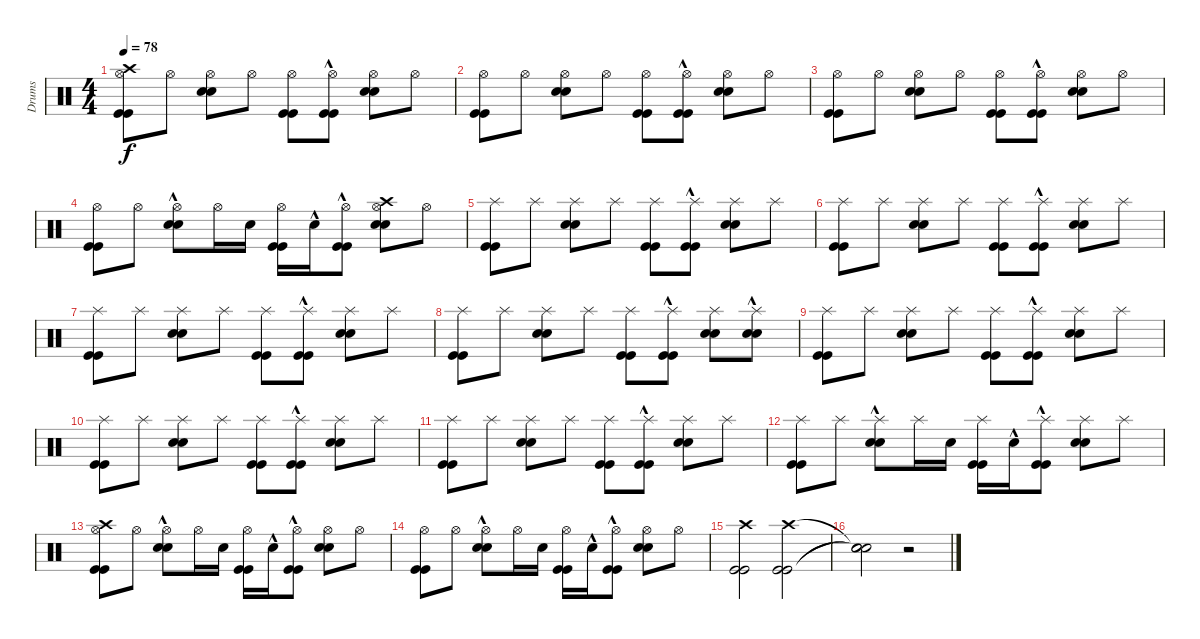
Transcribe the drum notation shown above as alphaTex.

\track ("Drums" "Drums") {instrument percussion}
\staff {score}
\articulation defaults
\ts (4 4)
\tempo 78
\clef neutral
\ks c
("Kick (hit)" "Kick (hit)" "Hi-Hat (open)" "Crash high (hit)").8{dy f} "Hi-Hat (open)".8 ("Snare (hit) 2" "Snare (hit) 2" "Hi-Hat (open)").8 "Hi-Hat (open)".8 ("Kick (hit)" "Kick (hit)" "Hi-Hat (open)").8 ("Kick (hit)"{hac} "Kick (hit)"{hac} "Hi-Hat (open)").8 ("Snare (hit) 2" "Snare (hit) 2" "Hi-Hat (open)").8 "Hi-Hat (open)".8 |
("Kick (hit)" "Kick (hit)" "Hi-Hat (open)").8 "Hi-Hat (open)".8 ("Snare (hit) 2" "Snare (hit) 2" "Hi-Hat (open)").8 "Hi-Hat (open)".8 ("Kick (hit)" "Kick (hit)" "Hi-Hat (open)").8 ("Kick (hit)"{hac} "Kick (hit)"{hac} "Hi-Hat (open)").8 ("Snare (hit) 2" "Snare (hit) 2" "Hi-Hat (open)").8 "Hi-Hat (open)".8 |
("Kick (hit)" "Kick (hit)" "Hi-Hat (open)").8 "Hi-Hat (open)".8 ("Snare (hit) 2" "Snare (hit) 2" "Hi-Hat (open)").8 "Hi-Hat (open)".8 ("Kick (hit)" "Kick (hit)" "Hi-Hat (open)").8 ("Kick (hit)"{hac} "Kick (hit)"{hac} "Hi-Hat (open)").8 ("Snare (hit) 2" "Snare (hit) 2" "Hi-Hat (open)").8 "Hi-Hat (open)".8 |
("Kick (hit)" "Kick (hit)" "Hi-Hat (open)").8 "Hi-Hat (open)".8 ("Snare (hit) 2"{hac} "Snare (hit) 2"{hac} "Hi-Hat (open)").8 "Hi-Hat (open)".16 "Snare (hit) 2".16 ("Kick (hit)" "Kick (hit)" "Hi-Hat (open)").16 "Snare (hit) 2"{hac}.16 ("Kick (hit)"{hac} "Kick (hit)"{hac} "Hi-Hat (open)").8 ("Snare (hit) 2" "Snare (hit) 2" "Hi-Hat (open)" "Crash high (hit)").8 "Hi-Hat (open)".8 |
("Kick (hit)" "Kick (hit)" "Splash (hit)").8 "Splash (hit)".8 ("Snare (hit) 2" "Snare (hit) 2" "Splash (hit)").8 "Splash (hit)".8 ("Kick (hit)" "Kick (hit)" "Splash (hit)").8 ("Kick (hit)"{hac} "Kick (hit)"{hac} "Splash (hit)").8 ("Snare (hit) 2" "Snare (hit) 2" "Splash (hit)").8 "Splash (hit)".8 |
("Kick (hit)" "Kick (hit)" "Splash (hit)").8 "Splash (hit)".8 ("Snare (hit) 2" "Snare (hit) 2" "Splash (hit)").8 "Splash (hit)".8 ("Kick (hit)" "Kick (hit)" "Splash (hit)").8 ("Kick (hit)"{hac} "Kick (hit)"{hac} "Splash (hit)").8 ("Snare (hit) 2" "Snare (hit) 2" "Splash (hit)").8 "Splash (hit)".8 |
("Kick (hit)" "Kick (hit)" "Splash (hit)").8 "Splash (hit)".8 ("Snare (hit) 2" "Snare (hit) 2" "Splash (hit)").8 "Splash (hit)".8 ("Kick (hit)" "Kick (hit)" "Splash (hit)").8 ("Kick (hit)"{hac} "Kick (hit)"{hac} "Splash (hit)").8 ("Snare (hit) 2" "Snare (hit) 2" "Splash (hit)").8 "Splash (hit)".8 |
("Kick (hit)" "Kick (hit)" "Splash (hit)").8 "Splash (hit)".8 ("Snare (hit) 2" "Snare (hit) 2" "Splash (hit)").8 "Splash (hit)".8 ("Kick (hit)" "Kick (hit)" "Splash (hit)").8 ("Kick (hit)"{hac} "Kick (hit)"{hac} "Splash (hit)").8 ("Snare (hit) 2" "Snare (hit) 2" "Splash (hit)").8 ("Snare (hit) 2"{hac} "Snare (hit) 2"{hac} "Splash (hit)").8 |
("Kick (hit)" "Kick (hit)" "Splash (hit)").8 "Splash (hit)".8 ("Snare (hit) 2" "Snare (hit) 2" "Splash (hit)").8 "Splash (hit)".8 ("Kick (hit)" "Kick (hit)" "Splash (hit)").8 ("Kick (hit)"{hac} "Kick (hit)"{hac} "Splash (hit)").8 ("Snare (hit) 2" "Snare (hit) 2" "Splash (hit)").8 "Splash (hit)".8 |
("Kick (hit)" "Kick (hit)" "Splash (hit)").8 "Splash (hit)".8 ("Snare (hit) 2" "Snare (hit) 2" "Splash (hit)").8 "Splash (hit)".8 ("Kick (hit)" "Kick (hit)" "Splash (hit)").8 ("Kick (hit)"{hac} "Kick (hit)"{hac} "Splash (hit)").8 ("Snare (hit) 2" "Snare (hit) 2" "Splash (hit)").8 "Splash (hit)".8 |
("Kick (hit)" "Kick (hit)" "Splash (hit)").8 "Splash (hit)".8 ("Snare (hit) 2" "Snare (hit) 2" "Splash (hit)").8 "Splash (hit)".8 ("Kick (hit)" "Kick (hit)" "Splash (hit)").8 ("Kick (hit)"{hac} "Kick (hit)"{hac} "Splash (hit)").8 ("Snare (hit) 2" "Snare (hit) 2" "Splash (hit)").8 "Splash (hit)".8 |
("Kick (hit)" "Kick (hit)" "Splash (hit)").8 "Splash (hit)".8 ("Snare (hit) 2"{hac} "Snare (hit) 2"{hac} "Splash (hit)").8 "Splash (hit)".16 "Snare (hit) 2".16 ("Kick (hit)" "Kick (hit)" "Splash (hit)").16 "Snare (hit) 2"{hac}.16 ("Kick (hit)"{hac} "Kick (hit)"{hac} "Splash (hit)").8 ("Snare (hit) 2" "Snare (hit) 2" "Splash (hit)").8 "Splash (hit)".8 |
("Kick (hit)" "Kick (hit)" "Hi-Hat (open)" "Crash high (hit)").8 "Hi-Hat (open)".8 ("Snare (hit) 2"{hac} "Snare (hit) 2"{hac} "Hi-Hat (open)").8 "Hi-Hat (open)".16 "Snare (hit) 2".16 ("Kick (hit)" "Kick (hit)" "Hi-Hat (open)").16 "Snare (hit) 2"{hac}.16 ("Kick (hit)"{hac} "Kick (hit)"{hac} "Hi-Hat (open)").8 ("Snare (hit) 2" "Snare (hit) 2" "Hi-Hat (open)").8 "Hi-Hat (open)".8 |
("Kick (hit)" "Kick (hit)" "Hi-Hat (open)").8 "Hi-Hat (open)".8 ("Snare (hit) 2"{hac} "Snare (hit) 2"{hac} "Hi-Hat (open)").8 "Hi-Hat (open)".16 "Snare (hit) 2".16 ("Kick (hit)" "Kick (hit)" "Hi-Hat (open)").16 "Snare (hit) 2"{hac}.16 ("Kick (hit)"{hac} "Kick (hit)"{hac} "Hi-Hat (open)").8 ("Snare (hit) 2" "Snare (hit) 2" "Hi-Hat (open)").8 "Hi-Hat (open)".8 |
("Kick (hit)" "Kick (hit)" "Crash high (hit)").2 ("Kick (hit)" "Kick (hit)" "Crash high (hit)").2 |
("Snare (hit)"{t} "Snare (hit)"{t} "Snare (hit)"{t}).2 r.2
